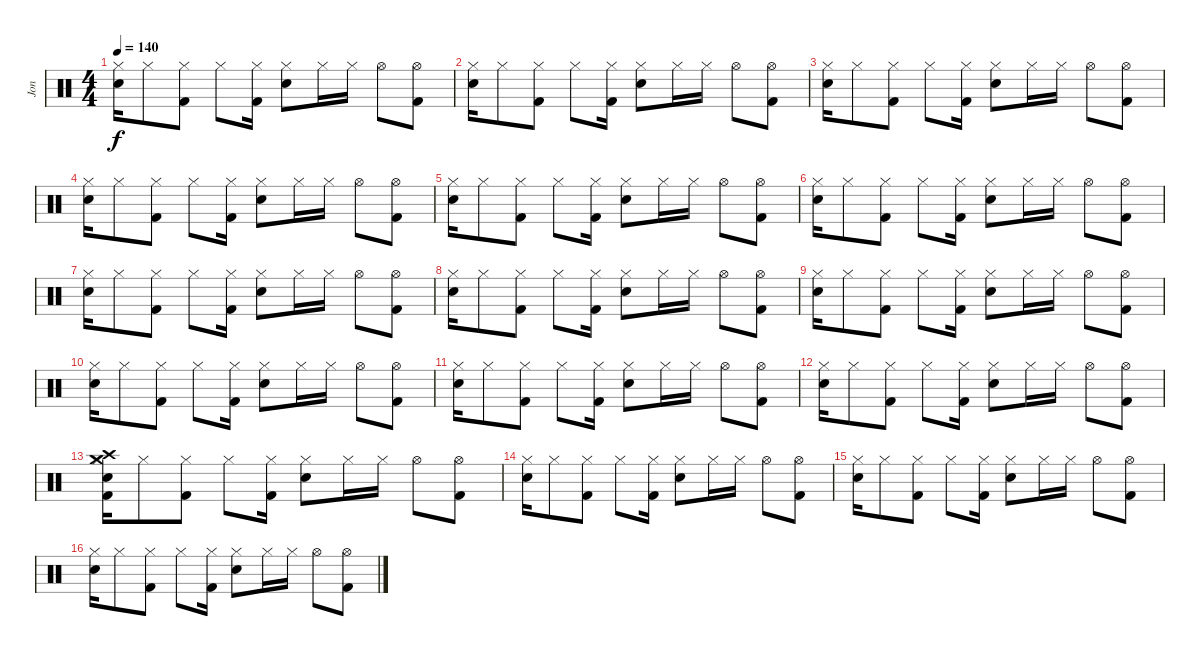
\track ("Jon" "Jon") {instrument percussion}
\staff {score}
\articulation defaults
\ts (4 4)
\tempo 140
\clef neutral
\ks c
("Hi-Hat (closed)" "Electric Snare (hit)").16{dy f} "Hi-Hat (closed)".8 ("Hi-Hat (closed)" "Kick (hit) 2").8 "Hi-Hat (closed)".8 ("Hi-Hat (closed)" "Kick (hit) 2").16 ("Hi-Hat (closed)" "Snare (hit) 2").8 "Hi-Hat (closed)".16 "Hi-Hat (closed)".16 "Hi-Hat (open)".8 ("Hi-Hat (open)" "Kick (hit) 2").8 |
("Hi-Hat (closed)" "Electric Snare (hit)").16 "Hi-Hat (closed)".8 ("Hi-Hat (closed)" "Kick (hit) 2").8 "Hi-Hat (closed)".8 ("Hi-Hat (closed)" "Kick (hit) 2").16 ("Hi-Hat (closed)" "Snare (hit) 2").8 "Hi-Hat (closed)".16 "Hi-Hat (closed)".16 "Hi-Hat (open)".8 ("Hi-Hat (open)" "Kick (hit) 2").8 |
("Hi-Hat (closed)" "Electric Snare (hit)").16 "Hi-Hat (closed)".8 ("Hi-Hat (closed)" "Kick (hit) 2").8 "Hi-Hat (closed)".8 ("Hi-Hat (closed)" "Kick (hit) 2").16 ("Hi-Hat (closed)" "Snare (hit) 2").8 "Hi-Hat (closed)".16 "Hi-Hat (closed)".16 "Hi-Hat (open)".8 ("Hi-Hat (open)" "Kick (hit) 2").8 |
("Hi-Hat (closed)" "Electric Snare (hit)").16 "Hi-Hat (closed)".8 ("Hi-Hat (closed)" "Kick (hit) 2").8 "Hi-Hat (closed)".8 ("Hi-Hat (closed)" "Kick (hit) 2").16 ("Hi-Hat (closed)" "Snare (hit) 2").8 "Hi-Hat (closed)".16 "Hi-Hat (closed)".16 "Hi-Hat (open)".8 ("Hi-Hat (open)" "Kick (hit) 2").8 |
("Hi-Hat (closed)" "Electric Snare (hit)").16 "Hi-Hat (closed)".8 ("Hi-Hat (closed)" "Kick (hit) 2").8 "Hi-Hat (closed)".8 ("Hi-Hat (closed)" "Kick (hit) 2").16 ("Hi-Hat (closed)" "Snare (hit) 2").8 "Hi-Hat (closed)".16 "Hi-Hat (closed)".16 "Hi-Hat (open)".8 ("Hi-Hat (open)" "Kick (hit) 2").8 |
("Hi-Hat (closed)" "Electric Snare (hit)").16 "Hi-Hat (closed)".8 ("Hi-Hat (closed)" "Kick (hit) 2").8 "Hi-Hat (closed)".8 ("Hi-Hat (closed)" "Kick (hit) 2").16 ("Hi-Hat (closed)" "Snare (hit) 2").8 "Hi-Hat (closed)".16 "Hi-Hat (closed)".16 "Hi-Hat (open)".8 ("Hi-Hat (open)" "Kick (hit) 2").8 |
("Hi-Hat (closed)" "Electric Snare (hit)").16 "Hi-Hat (closed)".8 ("Hi-Hat (closed)" "Kick (hit) 2").8 "Hi-Hat (closed)".8 ("Hi-Hat (closed)" "Kick (hit) 2").16 ("Hi-Hat (closed)" "Snare (hit) 2").8 "Hi-Hat (closed)".16 "Hi-Hat (closed)".16 "Hi-Hat (open)".8 ("Hi-Hat (open)" "Kick (hit) 2").8 |
("Hi-Hat (closed)" "Electric Snare (hit)").16 "Hi-Hat (closed)".8 ("Hi-Hat (closed)" "Kick (hit) 2").8 "Hi-Hat (closed)".8 ("Hi-Hat (closed)" "Kick (hit) 2").16 ("Hi-Hat (closed)" "Snare (hit) 2").8 "Hi-Hat (closed)".16 "Hi-Hat (closed)".16 "Hi-Hat (open)".8 ("Hi-Hat (open)" "Kick (hit) 2").8 |
("Hi-Hat (closed)" "Electric Snare (hit)").16 "Hi-Hat (closed)".8 ("Hi-Hat (closed)" "Kick (hit) 2").8 "Hi-Hat (closed)".8 ("Hi-Hat (closed)" "Kick (hit) 2").16 ("Hi-Hat (closed)" "Snare (hit) 2").8 "Hi-Hat (closed)".16 "Hi-Hat (closed)".16 "Hi-Hat (open)".8 ("Hi-Hat (open)" "Kick (hit) 2").8 |
("Hi-Hat (closed)" "Electric Snare (hit)").16 "Hi-Hat (closed)".8 ("Hi-Hat (closed)" "Kick (hit) 2").8 "Hi-Hat (closed)".8 ("Hi-Hat (closed)" "Kick (hit) 2").16 ("Hi-Hat (closed)" "Snare (hit) 2").8 "Hi-Hat (closed)".16 "Hi-Hat (closed)".16 "Hi-Hat (open)".8 ("Hi-Hat (open)" "Kick (hit) 2").8 |
("Hi-Hat (closed)" "Electric Snare (hit)").16 "Hi-Hat (closed)".8 ("Hi-Hat (closed)" "Kick (hit) 2").8 "Hi-Hat (closed)".8 ("Hi-Hat (closed)" "Kick (hit) 2").16 ("Hi-Hat (closed)" "Snare (hit) 2").8 "Hi-Hat (closed)".16 "Hi-Hat (closed)".16 "Hi-Hat (open)".8 ("Hi-Hat (open)" "Kick (hit) 2").8 |
("Hi-Hat (closed)" "Electric Snare (hit)").16 "Hi-Hat (closed)".8 ("Hi-Hat (closed)" "Kick (hit) 2").8 "Hi-Hat (closed)".8 ("Hi-Hat (closed)" "Kick (hit) 2").16 ("Hi-Hat (closed)" "Snare (hit) 2").8 "Hi-Hat (closed)".16 "Hi-Hat (closed)".16 "Hi-Hat (open)".8 ("Hi-Hat (open)" "Kick (hit) 2").8 |
("Crash high (hit)" "Crash medium (hit)" "Hi-Hat (closed)" "Electric Snare (hit)" "Kick (hit) 2").16 "Hi-Hat (closed)".8 ("Hi-Hat (closed)" "Kick (hit) 2").8 "Hi-Hat (closed)".8 ("Hi-Hat (closed)" "Kick (hit) 2").16 ("Hi-Hat (closed)" "Snare (hit) 2").8 "Hi-Hat (closed)".16 "Hi-Hat (closed)".16 "Hi-Hat (open)".8 ("Hi-Hat (open)" "Kick (hit) 2").8 |
("Hi-Hat (closed)" "Electric Snare (hit)").16 "Hi-Hat (closed)".8 ("Hi-Hat (closed)" "Kick (hit) 2").8 "Hi-Hat (closed)".8 ("Hi-Hat (closed)" "Kick (hit) 2").16 ("Hi-Hat (closed)" "Snare (hit) 2").8 "Hi-Hat (closed)".16 "Hi-Hat (closed)".16 "Hi-Hat (open)".8 ("Hi-Hat (open)" "Kick (hit) 2").8 |
("Hi-Hat (closed)" "Electric Snare (hit)").16 "Hi-Hat (closed)".8 ("Hi-Hat (closed)" "Kick (hit) 2").8 "Hi-Hat (closed)".8 ("Hi-Hat (closed)" "Kick (hit) 2").16 ("Hi-Hat (closed)" "Snare (hit) 2").8 "Hi-Hat (closed)".16 "Hi-Hat (closed)".16 "Hi-Hat (open)".8 ("Hi-Hat (open)" "Kick (hit) 2").8 |
("Hi-Hat (closed)" "Electric Snare (hit)").16 "Hi-Hat (closed)".8 ("Hi-Hat (closed)" "Kick (hit) 2").8 "Hi-Hat (closed)".8 ("Hi-Hat (closed)" "Kick (hit) 2").16 ("Hi-Hat (closed)" "Snare (hit) 2").8 "Hi-Hat (closed)".16 "Hi-Hat (closed)".16 "Hi-Hat (open)".8 ("Hi-Hat (open)" "Kick (hit) 2").8
